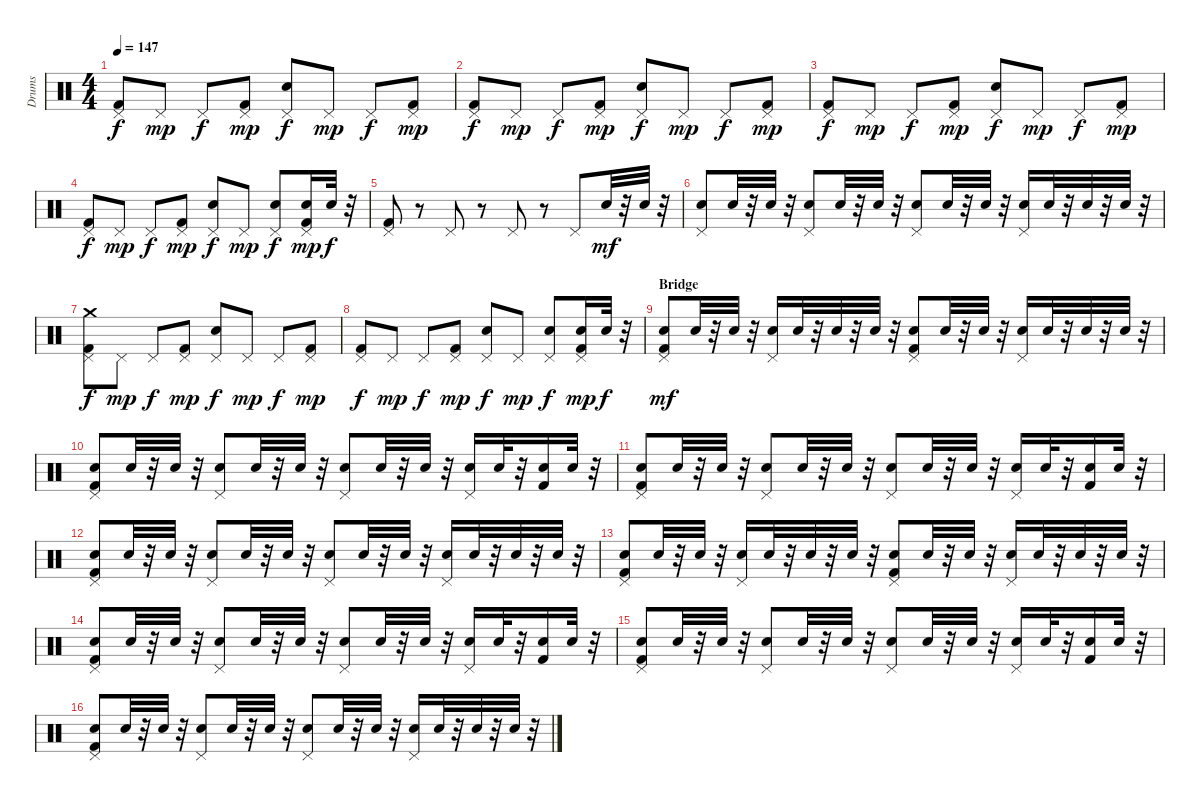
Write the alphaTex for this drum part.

\track ("Drums" "Drums") {instrument percussion}
\staff {score}
\articulation defaults
\ts (4 4)
\tempo 147
\clef neutral
\ks c
("Pedal Hi-Hat (hit)" "Kick (hit) 2").8{dy f} "Pedal Hi-Hat (hit)".8{dy mp} "Pedal Hi-Hat (hit)".8{dy f} ("Pedal Hi-Hat (hit)" "Kick (hit) 2").8{dy mp} ("Pedal Hi-Hat (hit)" "Snare (hit) 2").8{dy f} "Pedal Hi-Hat (hit)".8{dy mp} "Pedal Hi-Hat (hit)".8{dy f} ("Pedal Hi-Hat (hit)" "Kick (hit) 2").8{dy mp} |
("Pedal Hi-Hat (hit)" "Kick (hit) 2").8{dy f} "Pedal Hi-Hat (hit)".8{dy mp} "Pedal Hi-Hat (hit)".8{dy f} ("Pedal Hi-Hat (hit)" "Kick (hit) 2").8{dy mp} ("Pedal Hi-Hat (hit)" "Snare (hit) 2").8{dy f} "Pedal Hi-Hat (hit)".8{dy mp} "Pedal Hi-Hat (hit)".8{dy f} ("Pedal Hi-Hat (hit)" "Kick (hit) 2").8{dy mp} |
("Pedal Hi-Hat (hit)" "Kick (hit) 2").8{dy f} "Pedal Hi-Hat (hit)".8{dy mp} "Pedal Hi-Hat (hit)".8{dy f} ("Pedal Hi-Hat (hit)" "Kick (hit) 2").8{dy mp} ("Pedal Hi-Hat (hit)" "Snare (hit) 2").8{dy f} "Pedal Hi-Hat (hit)".8{dy mp} "Pedal Hi-Hat (hit)".8{dy f} ("Pedal Hi-Hat (hit)" "Kick (hit) 2").8{dy mp} |
("Pedal Hi-Hat (hit)" "Kick (hit) 2").8{dy f} "Pedal Hi-Hat (hit)".8{dy mp} "Pedal Hi-Hat (hit)".8{dy f} ("Pedal Hi-Hat (hit)" "Kick (hit) 2").8{dy mp} ("Pedal Hi-Hat (hit)" "Snare (hit) 2").8{dy f} "Pedal Hi-Hat (hit)".8{dy mp} ("Pedal Hi-Hat (hit)" "Snare (hit) 2").8{dy f} ("Pedal Hi-Hat (hit)" "Snare (hit) 2" "Kick (hit) 2").16{dy mp} "Snare (hit) 2".32{dy f} r.32 |
("Pedal Hi-Hat (hit)" "Kick (hit) 2").8 r.8 "Pedal Hi-Hat (hit)".8 r.8 "Pedal Hi-Hat (hit)".8 r.8 "Pedal Hi-Hat (hit)".8 "Snare (hit) 2".32{dy mf} r.32 "Snare (hit) 2".32 r.32 |
("Pedal Hi-Hat (hit)" "Snare (hit) 2").8 "Snare (hit) 2".32 r.32 "Snare (hit) 2".32 r.32 ("Pedal Hi-Hat (hit)" "Snare (hit) 2").8 "Snare (hit) 2".32 r.32 "Snare (hit) 2".32 r.32 ("Pedal Hi-Hat (hit)" "Snare (hit) 2").8 "Snare (hit) 2".32 r.32 "Snare (hit) 2".32 r.32 ("Pedal Hi-Hat (hit)" "Snare (hit) 2").16 "Snare (hit) 2".32 r.32 "Snare (hit) 2".32 r.32 "Snare (hit) 2".32 r.32 |
("Pedal Hi-Hat (hit)" "Kick (hit) 2" "Crash medium (hit)").8{dy f} "Pedal Hi-Hat (hit)".8{dy mp} "Pedal Hi-Hat (hit)".8{dy f} ("Pedal Hi-Hat (hit)" "Kick (hit) 2").8{dy mp} ("Pedal Hi-Hat (hit)" "Snare (hit) 2").8{dy f} "Pedal Hi-Hat (hit)".8{dy mp} "Pedal Hi-Hat (hit)".8{dy f} ("Pedal Hi-Hat (hit)" "Kick (hit) 2").8{dy mp} |
("Pedal Hi-Hat (hit)" "Kick (hit) 2").8{dy f} "Pedal Hi-Hat (hit)".8{dy mp} "Pedal Hi-Hat (hit)".8{dy f} ("Pedal Hi-Hat (hit)" "Kick (hit) 2").8{dy mp} ("Pedal Hi-Hat (hit)" "Snare (hit) 2").8{dy f} "Pedal Hi-Hat (hit)".8{dy mp} ("Pedal Hi-Hat (hit)" "Snare (hit) 2").8{dy f} ("Pedal Hi-Hat (hit)" "Snare (hit) 2" "Kick (hit) 2").16{dy mp} "Snare (hit) 2".32{dy f} r.32 |
\section ("" "Bridge")
("Pedal Hi-Hat (hit)" "Kick (hit) 2" "Snare (hit) 2").8{dy mf} "Snare (hit) 2".32 r.32 "Snare (hit) 2".32 r.32 ("Pedal Hi-Hat (hit)" "Snare (hit) 2").16 "Snare (hit) 2".32 r.32 "Snare (hit) 2".32 r.32 "Snare (hit) 2".32 r.32 ("Pedal Hi-Hat (hit)" "Kick (hit) 2" "Snare (hit) 2").8 "Snare (hit) 2".32 r.32 "Snare (hit) 2".32 r.32 ("Pedal Hi-Hat (hit)" "Snare (hit) 2").16 "Snare (hit) 2".32 r.32 "Snare (hit) 2".32 r.32 "Snare (hit) 2".32 r.32 |
("Pedal Hi-Hat (hit)" "Kick (hit) 2" "Snare (hit) 2").8 "Snare (hit) 2".32 r.32 "Snare (hit) 2".32 r.32 ("Pedal Hi-Hat (hit)" "Snare (hit) 2").8 "Snare (hit) 2".32 r.32 "Snare (hit) 2".32 r.32 ("Pedal Hi-Hat (hit)" "Snare (hit) 2").8 "Snare (hit) 2".32 r.32 "Snare (hit) 2".32 r.32 ("Pedal Hi-Hat (hit)" "Snare (hit) 2").16 "Snare (hit) 2".32 r.32 ("Kick (hit) 2" "Snare (hit) 2").16 "Snare (hit) 2".32 r.32 |
("Pedal Hi-Hat (hit)" "Kick (hit) 2" "Snare (hit) 2").8 "Snare (hit) 2".32 r.32 "Snare (hit) 2".32 r.32 ("Pedal Hi-Hat (hit)" "Snare (hit) 2").8 "Snare (hit) 2".32 r.32 "Snare (hit) 2".32 r.32 ("Pedal Hi-Hat (hit)" "Snare (hit) 2").8 "Snare (hit) 2".32 r.32 "Snare (hit) 2".32 r.32 ("Pedal Hi-Hat (hit)" "Snare (hit) 2").16 "Snare (hit) 2".32 r.32 ("Kick (hit) 2" "Snare (hit) 2").16 "Snare (hit) 2".32 r.32 |
("Pedal Hi-Hat (hit)" "Kick (hit) 2" "Snare (hit) 2").8 "Snare (hit) 2".32 r.32 "Snare (hit) 2".32 r.32 ("Pedal Hi-Hat (hit)" "Snare (hit) 2").8 "Snare (hit) 2".32 r.32 "Snare (hit) 2".32 r.32 ("Pedal Hi-Hat (hit)" "Snare (hit) 2").8 "Snare (hit) 2".32 r.32 "Snare (hit) 2".32 r.32 ("Pedal Hi-Hat (hit)" "Snare (hit) 2").16 "Snare (hit) 2".32 r.32 "Snare (hit) 2".32 r.32 "Snare (hit) 2".32 r.32 |
("Pedal Hi-Hat (hit)" "Kick (hit) 2" "Snare (hit) 2").8 "Snare (hit) 2".32 r.32 "Snare (hit) 2".32 r.32 ("Pedal Hi-Hat (hit)" "Snare (hit) 2").16 "Snare (hit) 2".32 r.32 "Snare (hit) 2".32 r.32 "Snare (hit) 2".32 r.32 ("Pedal Hi-Hat (hit)" "Kick (hit) 2" "Snare (hit) 2").8 "Snare (hit) 2".32 r.32 "Snare (hit) 2".32 r.32 ("Pedal Hi-Hat (hit)" "Snare (hit) 2").16 "Snare (hit) 2".32 r.32 "Snare (hit) 2".32 r.32 "Snare (hit) 2".32 r.32 |
("Pedal Hi-Hat (hit)" "Kick (hit) 2" "Snare (hit) 2").8 "Snare (hit) 2".32 r.32 "Snare (hit) 2".32 r.32 ("Pedal Hi-Hat (hit)" "Snare (hit) 2").8 "Snare (hit) 2".32 r.32 "Snare (hit) 2".32 r.32 ("Pedal Hi-Hat (hit)" "Snare (hit) 2").8 "Snare (hit) 2".32 r.32 "Snare (hit) 2".32 r.32 ("Pedal Hi-Hat (hit)" "Snare (hit) 2").16 "Snare (hit) 2".32 r.32 ("Kick (hit) 2" "Snare (hit) 2").16 "Snare (hit) 2".32 r.32 |
("Pedal Hi-Hat (hit)" "Kick (hit) 2" "Snare (hit) 2").8 "Snare (hit) 2".32 r.32 "Snare (hit) 2".32 r.32 ("Pedal Hi-Hat (hit)" "Snare (hit) 2").8 "Snare (hit) 2".32 r.32 "Snare (hit) 2".32 r.32 ("Pedal Hi-Hat (hit)" "Snare (hit) 2").8 "Snare (hit) 2".32 r.32 "Snare (hit) 2".32 r.32 ("Pedal Hi-Hat (hit)" "Snare (hit) 2").16 "Snare (hit) 2".32 r.32 ("Kick (hit) 2" "Snare (hit) 2").16 "Snare (hit) 2".32 r.32 |
("Pedal Hi-Hat (hit)" "Kick (hit) 2" "Snare (hit) 2").8 "Snare (hit) 2".32 r.32 "Snare (hit) 2".32 r.32 ("Pedal Hi-Hat (hit)" "Snare (hit) 2").8 "Snare (hit) 2".32 r.32 "Snare (hit) 2".32 r.32 ("Pedal Hi-Hat (hit)" "Snare (hit) 2").8 "Snare (hit) 2".32 r.32 "Snare (hit) 2".32 r.32 ("Pedal Hi-Hat (hit)" "Snare (hit) 2").16 "Snare (hit) 2".32 r.32 "Snare (hit) 2".32 r.32 "Snare (hit) 2".32 r.32
